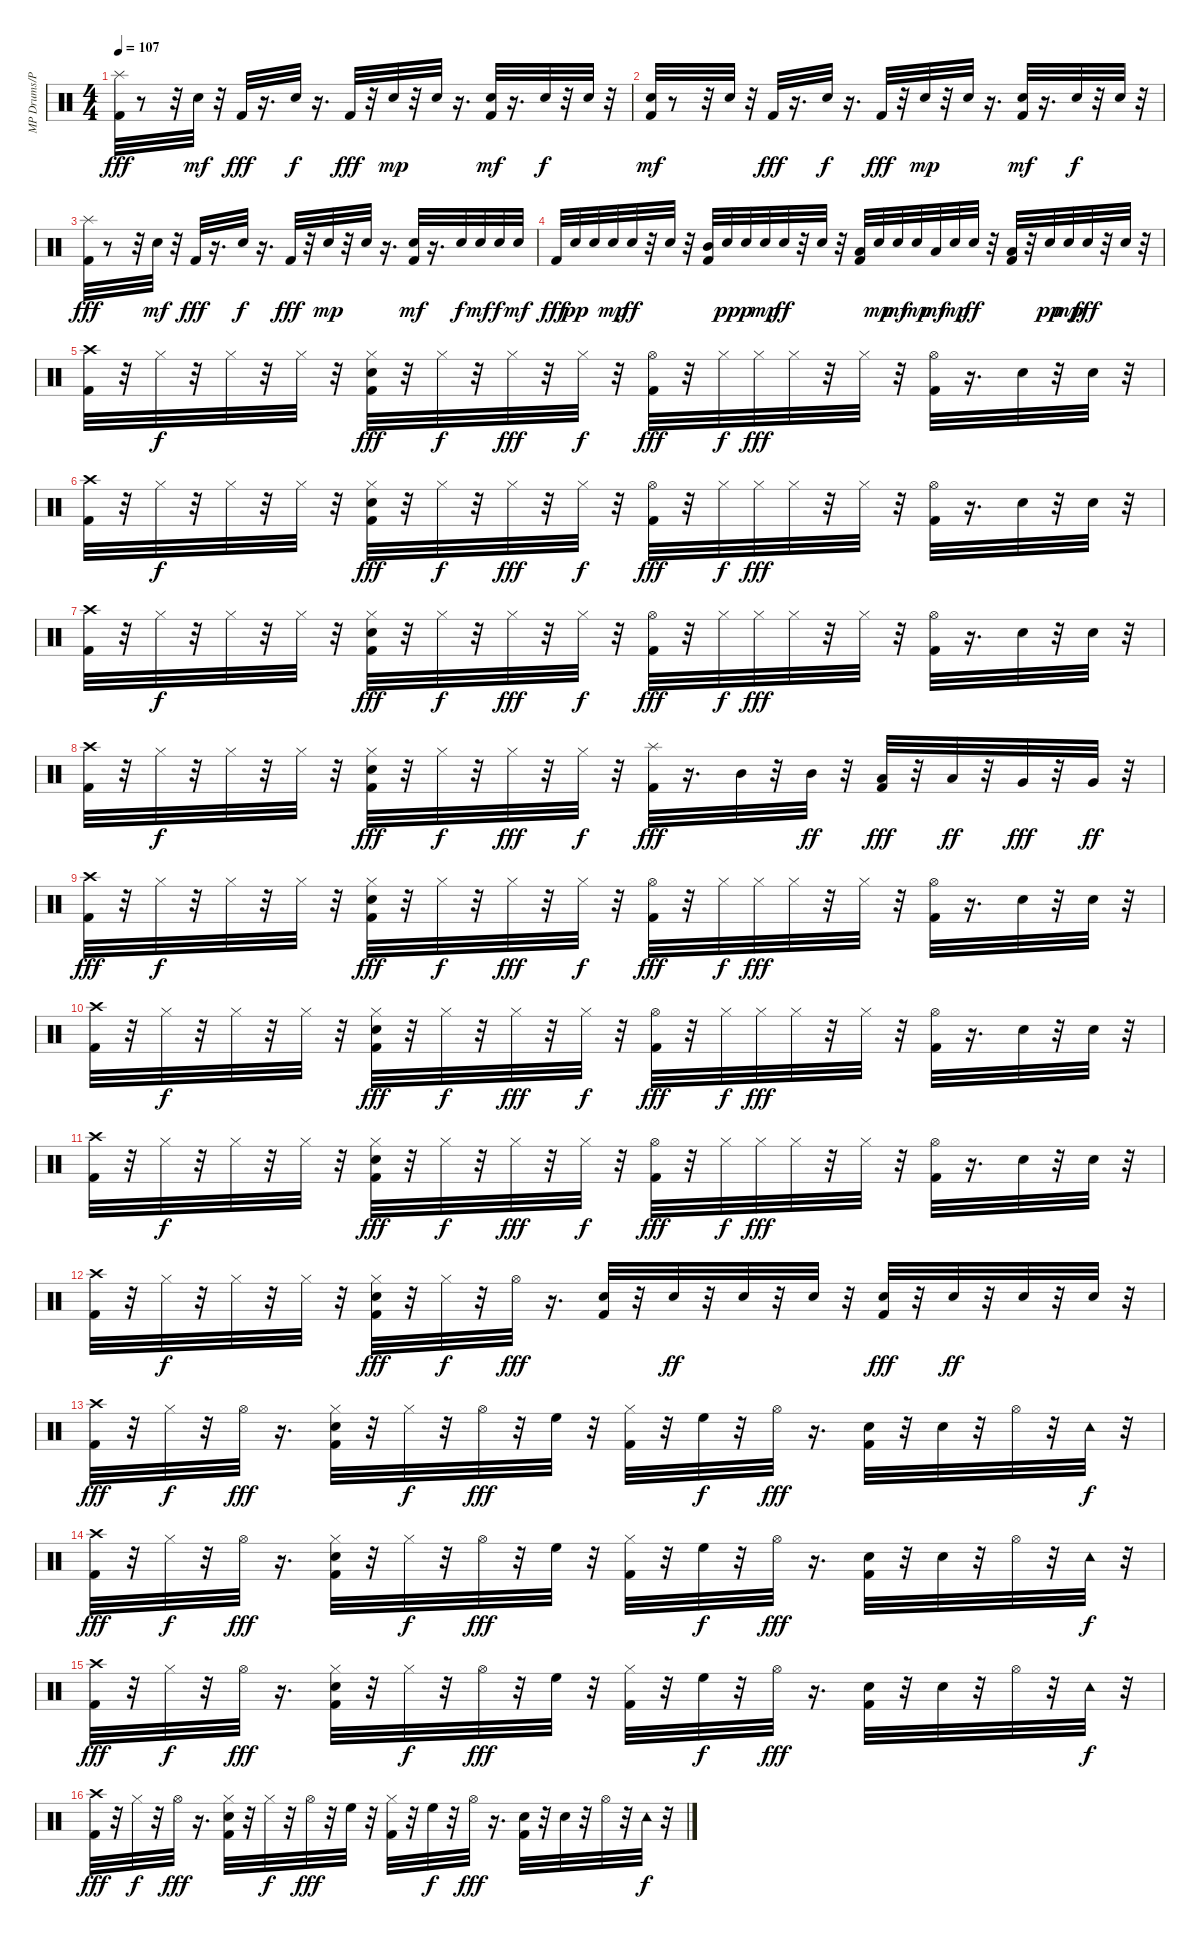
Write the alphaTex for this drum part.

\track ("MP Drums/Percussion" "MP Drums/P") {instrument percussion}
\staff {score}
\articulation defaults
\ts (4 4)
\tempo 107
\clef neutral
\ks c
("Kick (hit) 2" "Splash (hit)").32{dy fff} r.8 r.32 "Snare (hit) 2".32{dy mf} r.32 "Kick (hit) 2".32{dy fff} r.16{d} "Snare (hit) 2".32{dy f} r.16{d} "Kick (hit) 2".32{dy fff} r.32 "Snare (hit) 2".32{dy mp} r.32 "Snare (hit) 2".32 r.16{d} ("Kick (hit) 2" "Snare (hit) 2").32{dy mf} r.16{d} "Snare (hit) 2".32{dy f} r.32 "Snare (hit) 2".32 r.32 |
("Kick (hit) 2" "Snare (hit) 2").32{dy mf} r.8 r.32 "Snare (hit) 2".32 r.32 "Kick (hit) 2".32{dy fff} r.16{d} "Snare (hit) 2".32{dy f} r.16{d} "Kick (hit) 2".32{dy fff} r.32 "Snare (hit) 2".32{dy mp} r.32 "Snare (hit) 2".32 r.16{d} ("Kick (hit) 2" "Snare (hit) 2").32{dy mf} r.16{d} "Snare (hit) 2".32{dy f} r.32 "Snare (hit) 2".32 r.32 |
("Kick (hit) 2" "Splash (hit)").32{dy fff} r.8 r.32 "Snare (hit) 2".32{dy mf} r.32 "Kick (hit) 2".32{dy fff} r.16{d} "Snare (hit) 2".32{dy f} r.16{d} "Kick (hit) 2".32{dy fff} r.32 "Snare (hit) 2".32{dy mp} r.32 "Snare (hit) 2".32 r.16{d} ("Kick (hit) 2" "Snare (hit) 2").32{dy mf} r.16{d} "Snare (hit) 2".32{dy f} "Snare (hit) 2".32{dy mf} "Snare (hit) 2".32{dy f} "Snare (hit) 2".32{dy mf} |
"Kick (hit) 2".32{dy fff} "Snare (hit) 2".32{dy pp} "Snare (hit) 2".32 "Snare (hit) 2".32{dy mp} "Snare (hit) 2".32{dy ff} r.32 "Snare (hit) 2".32 r.32 ("Kick (hit) 2" "Mid Tom (hit)").32 "Snare (hit) 2".32{dy pp} "Snare (hit) 2".32{dy p} "Snare (hit) 2".32{dy mp} "Snare (hit) 2".32{dy ff} r.32 "Snare (hit) 2".32 r.32 ("Kick (hit) 2" "Low Tom (hit)").32 "Snare (hit) 2".32{dy mp} "Snare (hit) 2".32{dy mf} "Snare (hit) 2".32{dy mp} "Low Tom (hit)".32{dy mf} "Snare (hit) 2".32{dy mp} "Snare (hit) 2".32{dy ff} r.32 ("Kick (hit) 2" "Low Floor Tom (hit)").32 r.32 "Snare (hit) 2".32{dy pp} "Snare (hit) 2".32{dy mp} "Snare (hit) 2".32{dy fff} r.32 "Snare (hit) 2".32 r.32 |
("Kick (hit) 2" "Crash high (hit)").32 r.32 "Hi-Hat (closed)".32{dy f} r.32 "Hi-Hat (closed)".32 r.32 "Hi-Hat (closed)".32 r.32 ("Kick (hit) 2" "Hi-Hat (closed)" "Snare (hit) 2").32{dy fff} r.32 "Hi-Hat (closed)".32{dy f} r.32 "Hi-Hat (closed)".32{dy fff} r.32 "Hi-Hat (closed)".32{dy f} r.32 ("Kick (hit) 2" "Hi-Hat (open)").32{dy fff} r.32 "Hi-Hat (closed)".32{dy f} "Hi-Hat (closed)".32{dy fff} "Hi-Hat (closed)".32 r.32 "Hi-Hat (closed)".32 r.32 ("Kick (hit) 2" "Hi-Hat (open)").32 r.16{d} "Snare (hit) 2".32 r.32 "Snare (hit) 2".32 r.32 |
("Kick (hit) 2" "Crash high (hit)").32 r.32 "Hi-Hat (closed)".32{dy f} r.32 "Hi-Hat (closed)".32 r.32 "Hi-Hat (closed)".32 r.32 ("Kick (hit) 2" "Hi-Hat (closed)" "Snare (hit) 2").32{dy fff} r.32 "Hi-Hat (closed)".32{dy f} r.32 "Hi-Hat (closed)".32{dy fff} r.32 "Hi-Hat (closed)".32{dy f} r.32 ("Kick (hit) 2" "Hi-Hat (open)").32{dy fff} r.32 "Hi-Hat (closed)".32{dy f} "Hi-Hat (closed)".32{dy fff} "Hi-Hat (closed)".32 r.32 "Hi-Hat (closed)".32 r.32 ("Kick (hit) 2" "Hi-Hat (open)").32 r.16{d} "Snare (hit) 2".32 r.32 "Snare (hit) 2".32 r.32 |
("Kick (hit) 2" "Crash high (hit)").32 r.32 "Hi-Hat (closed)".32{dy f} r.32 "Hi-Hat (closed)".32 r.32 "Hi-Hat (closed)".32 r.32 ("Kick (hit) 2" "Hi-Hat (closed)" "Snare (hit) 2").32{dy fff} r.32 "Hi-Hat (closed)".32{dy f} r.32 "Hi-Hat (closed)".32{dy fff} r.32 "Hi-Hat (closed)".32{dy f} r.32 ("Kick (hit) 2" "Hi-Hat (open)").32{dy fff} r.32 "Hi-Hat (closed)".32{dy f} "Hi-Hat (closed)".32{dy fff} "Hi-Hat (closed)".32 r.32 "Hi-Hat (closed)".32 r.32 ("Kick (hit) 2" "Hi-Hat (open)").32 r.16{d} "Snare (hit) 2".32 r.32 "Snare (hit) 2".32 r.32 |
("Kick (hit) 2" "Crash high (hit)").32 r.32 "Hi-Hat (closed)".32{dy f} r.32 "Hi-Hat (closed)".32 r.32 "Hi-Hat (closed)".32 r.32 ("Kick (hit) 2" "Hi-Hat (closed)" "Snare (hit) 2").32{dy fff} r.32 "Hi-Hat (closed)".32{dy f} r.32 "Hi-Hat (closed)".32{dy fff} r.32 "Hi-Hat (closed)".32{dy f} r.32 ("Kick (hit) 2" "Splash (hit)").32{dy fff} r.16{d} "Mid Tom (hit)".32 r.32 "Mid Tom (hit)".32{dy ff} r.32 ("Kick (hit) 2" "Low Tom (hit)").32{dy fff} r.32 "Low Tom (hit)".32{dy ff} r.32 "Very Low Tom (hit)".32{dy fff} r.32 "Very Low Tom (hit)".32{dy ff} r.32 |
("Kick (hit) 2" "Crash high (hit)").32{dy fff} r.32 "Hi-Hat (closed)".32{dy f} r.32 "Hi-Hat (closed)".32 r.32 "Hi-Hat (closed)".32 r.32 ("Kick (hit) 2" "Hi-Hat (closed)" "Snare (hit) 2").32{dy fff} r.32 "Hi-Hat (closed)".32{dy f} r.32 "Hi-Hat (closed)".32{dy fff} r.32 "Hi-Hat (closed)".32{dy f} r.32 ("Kick (hit) 2" "Hi-Hat (open)").32{dy fff} r.32 "Hi-Hat (closed)".32{dy f} "Hi-Hat (closed)".32{dy fff} "Hi-Hat (closed)".32 r.32 "Hi-Hat (closed)".32 r.32 ("Kick (hit) 2" "Hi-Hat (open)").32 r.16{d} "Snare (hit) 2".32 r.32 "Snare (hit) 2".32 r.32 |
("Kick (hit) 2" "Crash high (hit)").32 r.32 "Hi-Hat (closed)".32{dy f} r.32 "Hi-Hat (closed)".32 r.32 "Hi-Hat (closed)".32 r.32 ("Kick (hit) 2" "Hi-Hat (closed)" "Snare (hit) 2").32{dy fff} r.32 "Hi-Hat (closed)".32{dy f} r.32 "Hi-Hat (closed)".32{dy fff} r.32 "Hi-Hat (closed)".32{dy f} r.32 ("Kick (hit) 2" "Hi-Hat (open)").32{dy fff} r.32 "Hi-Hat (closed)".32{dy f} "Hi-Hat (closed)".32{dy fff} "Hi-Hat (closed)".32 r.32 "Hi-Hat (closed)".32 r.32 ("Kick (hit) 2" "Hi-Hat (open)").32 r.16{d} "Snare (hit) 2".32 r.32 "Snare (hit) 2".32 r.32 |
("Kick (hit) 2" "Crash high (hit)").32 r.32 "Hi-Hat (closed)".32{dy f} r.32 "Hi-Hat (closed)".32 r.32 "Hi-Hat (closed)".32 r.32 ("Kick (hit) 2" "Hi-Hat (closed)" "Snare (hit) 2").32{dy fff} r.32 "Hi-Hat (closed)".32{dy f} r.32 "Hi-Hat (closed)".32{dy fff} r.32 "Hi-Hat (closed)".32{dy f} r.32 ("Kick (hit) 2" "Hi-Hat (open)").32{dy fff} r.32 "Hi-Hat (closed)".32{dy f} "Hi-Hat (closed)".32{dy fff} "Hi-Hat (closed)".32 r.32 "Hi-Hat (closed)".32 r.32 ("Kick (hit) 2" "Hi-Hat (open)").32 r.16{d} "Snare (hit) 2".32 r.32 "Snare (hit) 2".32 r.32 |
("Kick (hit) 2" "Crash high (hit)").32 r.32 "Hi-Hat (closed)".32{dy f} r.32 "Hi-Hat (closed)".32 r.32 "Hi-Hat (closed)".32 r.32 ("Kick (hit) 2" "Hi-Hat (closed)" "Snare (hit) 2").32{dy fff} r.32 "Hi-Hat (closed)".32{dy f} r.32 "Hi-Hat (open)".32{dy fff} r.16{d} ("Kick (hit) 2" "Snare (hit) 2").32 r.32 "Snare (hit) 2".32{dy ff} r.32 "Snare (hit) 2".32 r.32 "Snare (hit) 2".32 r.32 ("Kick (hit) 2" "Snare (hit) 2").32{dy fff} r.32 "Snare (hit) 2".32{dy ff} r.32 "Snare (hit) 2".32 r.32 "Snare (hit) 2".32 r.32 |
("Kick (hit) 2" "Crash high (hit)").32{dy fff} r.32 "Hi-Hat (closed)".32{dy f} r.32 "Hi-Hat (open)".32{dy fff} r.16{d} ("Kick (hit) 2" "Hi-Hat (closed)" "Snare (hit) 2").32 r.32 "Hi-Hat (closed)".32{dy f} r.32 "Hi-Hat (open)".32{dy fff} r.32 "High Floor Tom (hit)".32 r.32 ("Kick (hit) 2" "Hi-Hat (closed)").32 r.32 "High Floor Tom (hit)".32{dy f} r.32 "Hi-Hat (open)".32{dy fff} r.16{d} ("Kick (hit) 2" "Snare (hit) 2").32 r.32 "Snare (hit) 2".32 r.32 "Hi-Hat (open)".32 r.32 "Tambourine (hit)".32{dy f} r.32 |
("Kick (hit) 2" "Crash high (hit)").32{dy fff} r.32 "Hi-Hat (closed)".32{dy f} r.32 "Hi-Hat (open)".32{dy fff} r.16{d} ("Kick (hit) 2" "Hi-Hat (closed)" "Snare (hit) 2").32 r.32 "Hi-Hat (closed)".32{dy f} r.32 "Hi-Hat (open)".32{dy fff} r.32 "High Floor Tom (hit)".32 r.32 ("Kick (hit) 2" "Hi-Hat (closed)").32 r.32 "High Floor Tom (hit)".32{dy f} r.32 "Hi-Hat (open)".32{dy fff} r.16{d} ("Kick (hit) 2" "Snare (hit) 2").32 r.32 "Snare (hit) 2".32 r.32 "Hi-Hat (open)".32 r.32 "Tambourine (hit)".32{dy f} r.32 |
("Kick (hit) 2" "Crash high (hit)").32{dy fff} r.32 "Hi-Hat (closed)".32{dy f} r.32 "Hi-Hat (open)".32{dy fff} r.16{d} ("Kick (hit) 2" "Hi-Hat (closed)" "Snare (hit) 2").32 r.32 "Hi-Hat (closed)".32{dy f} r.32 "Hi-Hat (open)".32{dy fff} r.32 "High Floor Tom (hit)".32 r.32 ("Kick (hit) 2" "Hi-Hat (closed)").32 r.32 "High Floor Tom (hit)".32{dy f} r.32 "Hi-Hat (open)".32{dy fff} r.16{d} ("Kick (hit) 2" "Snare (hit) 2").32 r.32 "Snare (hit) 2".32 r.32 "Hi-Hat (open)".32 r.32 "Tambourine (hit)".32{dy f} r.32 |
("Kick (hit) 2" "Crash high (hit)").32{dy fff} r.32 "Hi-Hat (closed)".32{dy f} r.32 "Hi-Hat (open)".32{dy fff} r.16{d} ("Kick (hit) 2" "Hi-Hat (closed)" "Snare (hit) 2").32 r.32 "Hi-Hat (closed)".32{dy f} r.32 "Hi-Hat (open)".32{dy fff} r.32 "High Floor Tom (hit)".32 r.32 ("Kick (hit) 2" "Hi-Hat (closed)").32 r.32 "High Floor Tom (hit)".32{dy f} r.32 "Hi-Hat (open)".32{dy fff} r.16{d} ("Kick (hit) 2" "Snare (hit) 2").32 r.32 "Snare (hit) 2".32 r.32 "Hi-Hat (open)".32 r.32 "Tambourine (hit)".32{dy f} r.32
